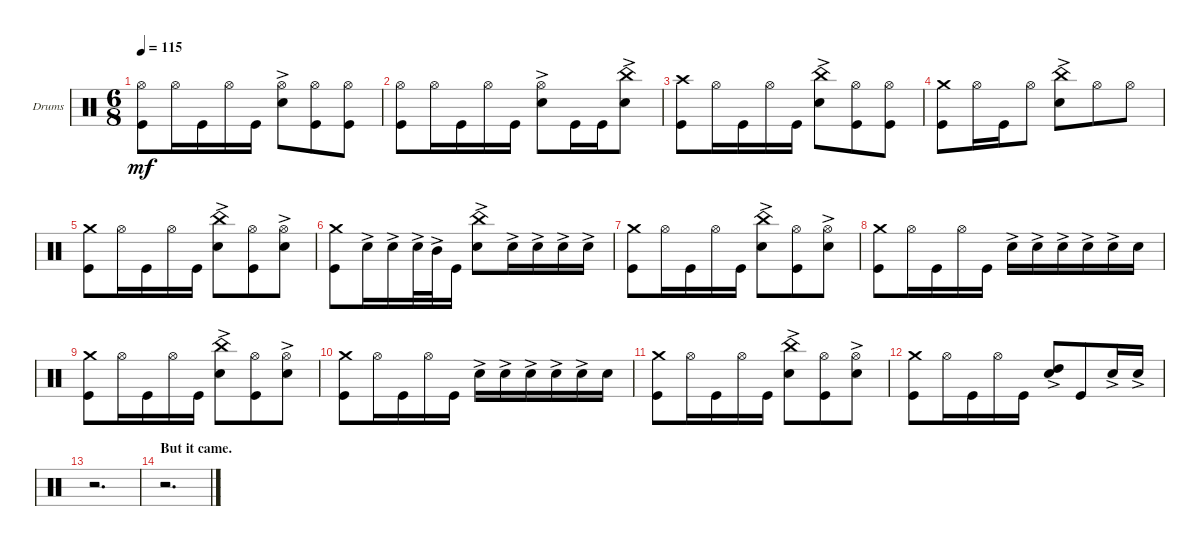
\bracketExtendMode groupsimilarinstruments
\firstSystemTrackNameOrientation horizontal
\otherSystemsTrackNameOrientation horizontal
\track ("Drumkit" "Drums") {instrument percussion}
\staff {score}
\articulation defaults
\ts (6 8)
\tempo 115
\clef neutral
\ks c
("Kick (hit)" "Hi-Hat (open)").8{dy mf} "Hi-Hat (open)".16 "Kick (hit)".16 "Hi-Hat (open)".16 "Kick (hit)".16 ("Snare (hit) 2"{ac} "Hi-Hat (open)").8 ("Kick (hit)" "Hi-Hat (open)").8 ("Kick (hit)" "Hi-Hat (open)").8 |
("Kick (hit)" "Hi-Hat (open)").8 "Hi-Hat (open)".16 "Kick (hit)".16 "Hi-Hat (open)".16 "Kick (hit)".16 ("Snare (hit) 2"{ac} "Hi-Hat (open)").8 "Kick (hit)".16 "Kick (hit)".16 ("Snare (hit) 2"{ac} "China (hit)").8 |
("Kick (hit)" "Crash high (hit)").8 "Hi-Hat (open)".16 "Kick (hit)".16 "Hi-Hat (open)".16 "Kick (hit)".16 ("Snare (hit) 2"{ac} "China (hit)").8 ("Kick (hit)" "Hi-Hat (open)").8 ("Kick (hit)" "Hi-Hat (open)").8 |
("Kick (hit)" "Crash medium (hit)").8 "Hi-Hat (open)".16 "Kick (hit)".16 "Hi-Hat (open)".8 ("Snare (hit) 2"{ac} "China (hit)").8 "Hi-Hat (open)".8 "Hi-Hat (open)".8 |
("Kick (hit)" "Crash medium (hit)").8 "Hi-Hat (open)".16 "Kick (hit)".16 "Hi-Hat (open)".16 "Kick (hit)".16 ("Snare (hit) 2"{ac} "China (hit)").8 ("Kick (hit)" "Hi-Hat (open)").8 ("Hi-Hat (open)" "Snare (hit) 2"{ac}).8 |
("Kick (hit)" "Crash medium (hit)").8 "Snare (hit) 2"{ac}.16 "Snare (hit) 2"{ac}.16 "Snare (hit) 2"{ac}.32 "Mid Tom (hit)"{ac}.32 "Kick (hit)".16 ("Snare (hit) 2"{ac} "China (hit)").8 "Snare (hit) 2"{ac}.16 "Snare (hit) 2"{ac}.16 "Snare (hit) 2"{ac}.16 "Snare (hit) 2"{ac}.16 |
("Kick (hit)" "Crash medium (hit)").8 "Hi-Hat (open)".16 "Kick (hit)".16 "Hi-Hat (open)".16 "Kick (hit)".16 ("Snare (hit) 2"{ac} "China (hit)").8 ("Kick (hit)" "Hi-Hat (open)").8 ("Hi-Hat (open)" "Snare (hit) 2"{ac}).8 |
("Kick (hit)" "Crash medium (hit)").8 "Hi-Hat (open)".16 "Kick (hit)".16 "Hi-Hat (open)".16 "Kick (hit)".16 "Snare (hit) 2"{ac}.16 "Snare (hit) 2"{ac}.16 "Snare (hit) 2"{ac}.16 "Snare (hit) 2"{ac}.16 "Snare (hit) 2"{ac}.16 "Snare (hit) 2".16 |
("Kick (hit)" "Crash medium (hit)").8 "Hi-Hat (open)".16 "Kick (hit)".16 "Hi-Hat (open)".16 "Kick (hit)".16 ("Snare (hit) 2"{ac} "China (hit)").8 ("Kick (hit)" "Hi-Hat (open)").8 ("Hi-Hat (open)" "Snare (hit) 2"{ac}).8 |
("Kick (hit)" "Crash medium (hit)").8 "Hi-Hat (open)".16 "Kick (hit)".16 "Hi-Hat (open)".16 "Kick (hit)".16 "Snare (hit) 2"{ac}.16 "Snare (hit) 2"{ac}.16 "Snare (hit) 2"{ac}.16 "Snare (hit) 2"{ac}.16 "Snare (hit) 2"{ac}.16 "Snare (hit) 2".16 |
("Kick (hit)" "Crash medium (hit)").8 "Hi-Hat (open)".16 "Kick (hit)".16 "Hi-Hat (open)".16 "Kick (hit)".16 ("Snare (hit) 2"{ac} "China (hit)").8 ("Kick (hit)" "Hi-Hat (open)").8 ("Hi-Hat (open)" "Snare (hit) 2"{ac}).8 |
("Kick (hit)" "Crash medium (hit)").8 "Hi-Hat (open)".16 "Kick (hit)".16 "Hi-Hat (open)".16 "Kick (hit)".16 ("Snare (hit) 2"{ac} "High Tom (hit)").8 "Kick (hit)".8 "Snare (hit) 2"{ac}.16 "Snare (hit) 2"{ac}.16 |
r.2{d} |
\section ("" "But it came.")
r.2{d}
